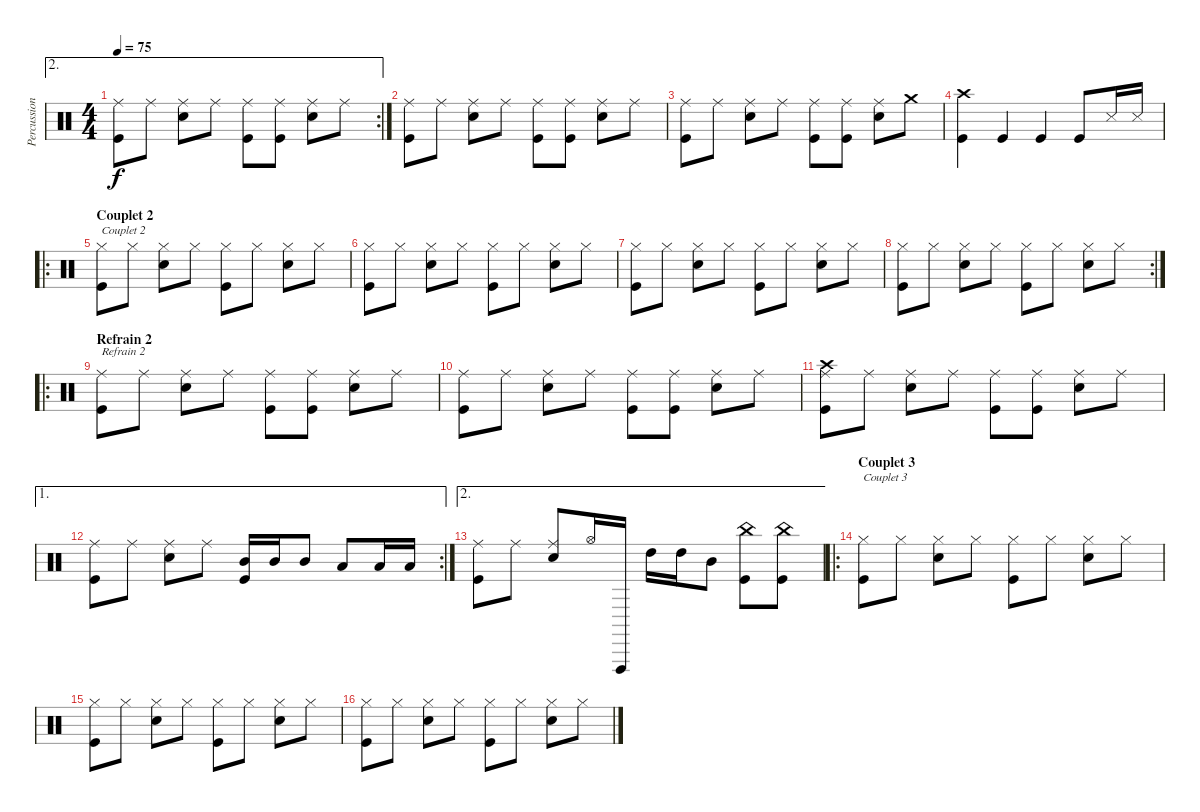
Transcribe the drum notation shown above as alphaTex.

\track ("Percussions" "Percussion") {instrument percussion}
\staff {score}
\articulation defaults
\ae 2
\rc 2
\ts (4 4)
\tempo 75
\clef neutral
\ks c
("Ride (middle)" "Kick (hit)").8{dy f} "Ride (middle)".8 ("Ride (middle)" "Snare (hit) 2").8 "Ride (middle)".8 ("Ride (middle)" "Kick (hit)").8 ("Ride (middle)" "Kick (hit)").8 ("Ride (middle)" "Snare (hit) 2").8 "Ride (middle)".8 |
("Ride (middle)" "Kick (hit)").8 "Ride (middle)".8 ("Ride (middle)" "Snare (hit) 2").8 "Ride (middle)".8 ("Ride (middle)" "Kick (hit)").8 ("Ride (middle)" "Kick (hit)").8 ("Ride (middle)" "Snare (hit) 2").8 "Ride (middle)".8 |
("Ride (middle)" "Kick (hit)").8 "Ride (middle)".8 ("Ride (middle)" "Snare (hit) 2").8 "Ride (middle)".8 ("Ride (middle)" "Kick (hit)").8 ("Ride (middle)" "Kick (hit)").8 ("Ride (middle)" "Snare (hit) 2").8 "Crash medium (hit)".8 |
("Crash high (hit)" "Kick (hit)").4 "Kick (hit)".4 "Kick (hit)".4 "Kick (hit)".8 "Snare (side stick) 3".16 "Snare (side stick) 3".16 |
\ro
\section ("" "Couplet 2")
("Hi-Hat (closed)" "Kick (hit)").8{txt "Couplet 2"} "Hi-Hat (closed)".8 ("Hi-Hat (closed)" "Snare (hit) 2").8 "Hi-Hat (closed)".8 ("Hi-Hat (closed)" "Kick (hit)").8 "Hi-Hat (closed)".8 ("Hi-Hat (closed)" "Snare (hit) 2").8 "Hi-Hat (closed)".8 |
("Hi-Hat (closed)" "Kick (hit)").8 "Hi-Hat (closed)".8 ("Hi-Hat (closed)" "Snare (hit) 2").8 "Hi-Hat (closed)".8 ("Hi-Hat (closed)" "Kick (hit)").8 "Hi-Hat (closed)".8 ("Hi-Hat (closed)" "Snare (hit) 2").8 "Hi-Hat (closed)".8 |
("Hi-Hat (closed)" "Kick (hit)").8 "Hi-Hat (closed)".8 ("Hi-Hat (closed)" "Snare (hit) 2").8 "Hi-Hat (closed)".8 ("Hi-Hat (closed)" "Kick (hit)").8 "Hi-Hat (closed)".8 ("Hi-Hat (closed)" "Snare (hit) 2").8 "Hi-Hat (closed)".8 |
\rc 2
("Hi-Hat (closed)" "Kick (hit)").8 "Hi-Hat (closed)".8 ("Hi-Hat (closed)" "Snare (hit) 2").8 "Hi-Hat (closed)".8 ("Hi-Hat (closed)" "Kick (hit)").8 "Hi-Hat (closed)".8 ("Hi-Hat (closed)" "Snare (hit) 2").8 "Hi-Hat (closed)".8 |
\ro
\section ("" "Refrain 2")
("Ride (middle)" "Kick (hit)").8{txt "Refrain 2"} "Ride (middle)".8 ("Ride (middle)" "Snare (hit) 2").8 "Ride (middle)".8 ("Ride (middle)" "Kick (hit)").8 ("Ride (middle)" "Kick (hit)").8 ("Ride (middle)" "Snare (hit) 2").8 "Ride (middle)".8 |
("Ride (middle)" "Kick (hit)").8 "Ride (middle)".8 ("Ride (middle)" "Snare (hit) 2").8 "Ride (middle)".8 ("Ride (middle)" "Kick (hit)").8 ("Ride (middle)" "Kick (hit)").8 ("Ride (middle)" "Snare (hit) 2").8 "Ride (middle)".8 |
("Ride (middle)" "Crash high (hit)" "Kick (hit)").8 "Ride (middle)".8 ("Ride (middle)" "Snare (hit) 2").8 "Ride (middle)".8 ("Ride (middle)" "Kick (hit)").8 ("Ride (middle)" "Kick (hit)").8 ("Ride (middle)" "Snare (hit) 2").8 "Ride (middle)".8 |
\ae 1
\rc 2
("Ride (middle)" "Kick (hit)").8 "Ride (middle)".8 ("Ride (middle)" "Snare (hit) 2").8 "Ride (middle)".8 ("Mid Tom (hit)" "Kick (hit)").16 "Mid Tom (hit)".16 "Mid Tom (hit)".8 "Low Tom (hit)".8 "Low Tom (hit)".16 "Low Floor Tom (hit)".16 |
\ae 2
("Ride (middle)" "Kick (hit)").8 "Ride (middle)".8 ("Ride (middle)" "Snare (hit) 2").8 "Hi-Hat (open)".16 "Vibraslap (hit)".16 "High Tom (hit)".16 "High Tom (hit)".16 "Mid Tom (hit)".8 ("China (hit)" "Kick (hit)").8 ("China (hit)" "Kick (hit)").8 |
\ro
\section ("" "Couplet 3")
("Hi-Hat (closed)" "Kick (hit)").8{txt "Couplet 3"} "Hi-Hat (closed)".8 ("Hi-Hat (closed)" "Snare (hit) 2").8 "Hi-Hat (closed)".8 ("Hi-Hat (closed)" "Kick (hit)").8 "Hi-Hat (closed)".8 ("Hi-Hat (closed)" "Snare (hit) 2").8 "Hi-Hat (closed)".8 |
("Hi-Hat (closed)" "Kick (hit)").8 "Hi-Hat (closed)".8 ("Hi-Hat (closed)" "Snare (hit) 2").8 "Hi-Hat (closed)".8 ("Hi-Hat (closed)" "Kick (hit)").8 "Hi-Hat (closed)".8 ("Hi-Hat (closed)" "Snare (hit) 2").8 "Hi-Hat (closed)".8 |
("Hi-Hat (closed)" "Kick (hit)").8 "Hi-Hat (closed)".8 ("Hi-Hat (closed)" "Snare (hit) 2").8 "Hi-Hat (closed)".8 ("Hi-Hat (closed)" "Kick (hit)").8 "Hi-Hat (closed)".8 ("Hi-Hat (closed)" "Snare (hit) 2").8 "Hi-Hat (closed)".8
